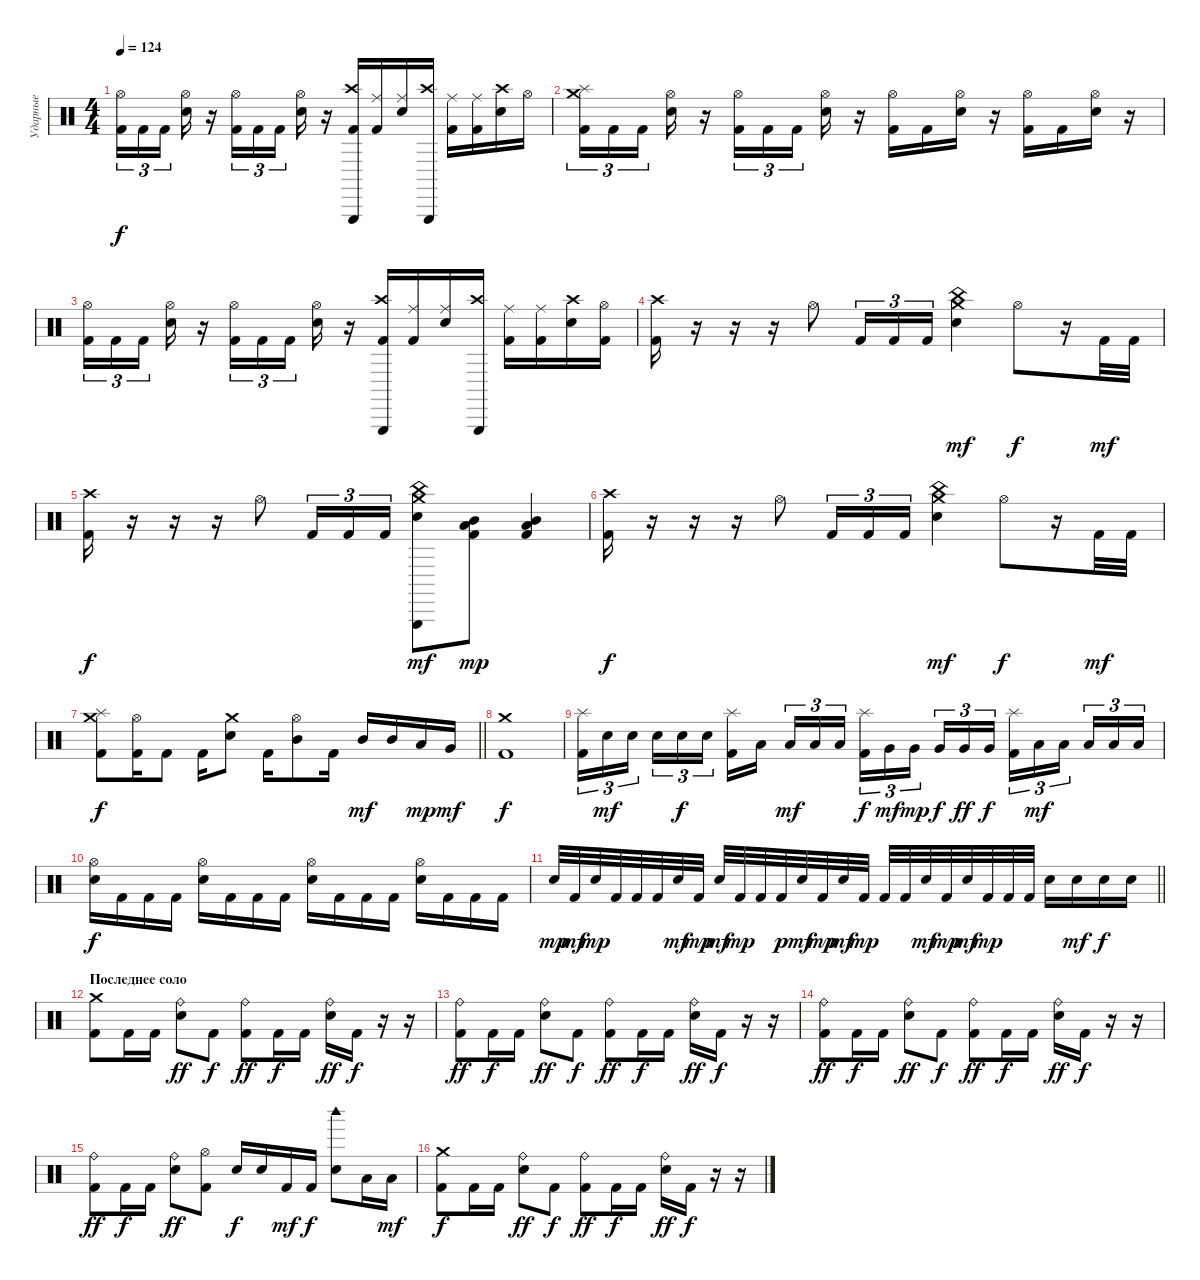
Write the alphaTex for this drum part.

\track ("Ударные" "Ударные") {instrument percussion bank 127}
\staff
\articulation defaults
\ts (4 4)
\tempo 124
\clef neutral
\ks c
("Hi-Hat (open)" "Kick (hit) 2").16{tu (3 2) dy f} "Kick (hit) 2".16{tu (3 2)} "Kick (hit) 2".16{tu (3 2) beam splitsecondary} ("Hi-Hat (open)" "Snare (hit) 2").16 r.16 ("Hi-Hat (open)" "Kick (hit) 2").16{tu (3 2)} "Kick (hit) 2".16{tu (3 2)} "Kick (hit) 2".16{tu (3 2) beam splitsecondary} ("Hi-Hat (open)" "Snare (hit) 2").16 r.16 ("Crash high (hit)" "Triangle (hit)" "Kick (hit) 2").16 ("Ride (middle)" "Kick (hit) 2").16 ("Ride (middle)" "Snare (hit) 2").16 ("Crash high (hit)" "Triangle (hit)").16 ("Ride (middle)" "Kick (hit) 2").16 ("Ride (middle)" "Kick (hit) 2").16 ("Crash high (hit)" "Snare (hit) 2").16 "Hi-Hat (open)".16 |
("Crash medium (hit)" "Splash (hit)" "Kick (hit) 2").16{tu (3 2)} "Kick (hit) 2".16{tu (3 2)} "Kick (hit) 2".16{tu (3 2) beam splitsecondary} ("Hi-Hat (open)" "Snare (hit) 2").16 r.16 ("Hi-Hat (open)" "Kick (hit) 2").16{tu (3 2)} "Kick (hit) 2".16{tu (3 2)} "Kick (hit) 2".16{tu (3 2) beam splitsecondary} ("Hi-Hat (open)" "Snare (hit) 2").16 r.16 ("Hi-Hat (open)" "Kick (hit) 2").16 "Kick (hit) 2".16 ("Hi-Hat (open)" "Snare (hit) 2").16 r.16 ("Hi-Hat (open)" "Kick (hit) 2").16 "Kick (hit) 2".16 ("Hi-Hat (open)" "Snare (hit) 2").16 r.16 |
("Hi-Hat (open)" "Kick (hit) 2").16{tu (3 2)} "Kick (hit) 2".16{tu (3 2)} "Kick (hit) 2".16{tu (3 2) beam splitsecondary} ("Hi-Hat (open)" "Snare (hit) 2").16 r.16 ("Hi-Hat (open)" "Kick (hit) 2").16{tu (3 2)} "Kick (hit) 2".16{tu (3 2)} "Kick (hit) 2".16{tu (3 2) beam splitsecondary} ("Hi-Hat (open)" "Snare (hit) 2").16 r.16 ("Crash high (hit)" "Triangle (hit)" "Kick (hit) 2").16 ("Ride (middle)" "Kick (hit) 2").16 ("Ride (middle)" "Snare (hit) 2").16 ("Crash high (hit)" "Triangle (hit)").16 ("Ride (middle)" "Kick (hit) 2").16 ("Ride (middle)" "Kick (hit) 2").16 ("Crash high (hit)" "Snare (hit) 2").16 ("Hi-Hat (open)" "Kick (hit) 2").16 |
("Crash high (hit)" "Kick (hit) 2").16 r.16 r.16 r.16 "Hi-Hat (open)".8 "Kick (hit) 2".16{tu (3 2)} "Kick (hit) 2".16{tu (3 2)} "Kick (hit) 2".16{tu (3 2)} ("China (hit)" "Snare (hit) 2" "Crash medium (hit)").4{dy mf} "Hi-Hat (open)".8{dy f} r.16 "Kick (hit) 2".32{dy mf} "Kick (hit) 2".32 |
("Crash high (hit)" "Kick (hit) 2").16{dy f} r.16 r.16 r.16 "Hi-Hat (open)".8 "Kick (hit) 2".16{tu (3 2)} "Kick (hit) 2".16{tu (3 2)} "Kick (hit) 2".16{tu (3 2)} ("China (hit)" "Snare (hit) 2" "Crash medium (hit)" "Triangle (hit)").8{dy mf} ("Kick (hit) 2" "Mid Tom (hit)" "Low Tom (hit)").8{dy mp} ("Kick (hit) 2" "Low Tom (hit)" "Mid Tom (hit)").4 |
("Crash high (hit)" "Kick (hit) 2").16{dy f} r.16 r.16 r.16 "Hi-Hat (open)".8 "Kick (hit) 2".16{tu (3 2)} "Kick (hit) 2".16{tu (3 2)} "Kick (hit) 2".16{tu (3 2)} ("China (hit)" "Snare (hit) 2" "Crash medium (hit)").4{dy mf} "Hi-Hat (open)".8{dy f} r.16 "Kick (hit) 2".32{dy mf} "Kick (hit) 2".32 |
\barLineRight lightlight
("Crash medium (hit)" "Splash (hit)" "Kick (hit) 2").8{dy f} ("Hi-Hat (open)" "Kick (hit) 2").16 "Kick (hit) 2".8 "Kick (hit) 2".16 ("Crash medium (hit)" "Snare (hit) 2").8 "Kick (hit) 2".16 ("Hi-Hat (open)" "Mid Tom (hit)").8 "Kick (hit) 2".16 "Mid Tom (hit)".16{dy mf} "Mid Tom (hit)".16 "Low Tom (hit)".16{dy mp} "Very Low Tom (hit)".16{dy mf} |
("Kick (hit) 2" "Crash medium (hit)").1{dy f} |
("Kick (hit) 2" "Splash (hit)").16{tu (3 2)} "Snare (hit) 2".16{tu (3 2) dy mf} "Snare (hit) 2".16{tu (3 2) beam splitsecondary} "Snare (hit) 2".16{tu (3 2)} "Snare (hit) 2".16{tu (3 2) dy f} "Snare (hit) 2".16{tu (3 2)} ("Kick (hit) 2" "Splash (hit)").16 "Low Tom (hit)".16{beam splitsecondary} "Low Tom (hit)".16{tu (3 2) dy mf} "Low Tom (hit)".16{tu (3 2)} "Low Tom (hit)".16{tu (3 2)} ("Splash (hit)" "Kick (hit) 2").16{tu (3 2) dy f} "Very Low Tom (hit)".16{tu (3 2) dy mf} "Very Low Tom (hit)".16{tu (3 2) dy mp beam splitsecondary} "Very Low Tom (hit)".16{tu (3 2) dy f} "Very Low Tom (hit)".16{tu (3 2) dy ff} "Very Low Tom (hit)".16{tu (3 2) dy f} ("Splash (hit)" "Kick (hit) 2").16{tu (3 2)} "Low Floor Tom (hit)".16{tu (3 2) dy mf} "Low Floor Tom (hit)".16{tu (3 2) beam splitsecondary} "Low Floor Tom (hit)".16{tu (3 2)} "Low Floor Tom (hit)".16{tu (3 2)} "Low Floor Tom (hit)".16{tu (3 2)} |
("Hi-Hat (open)" "Snare (hit) 2").16{dy f} "Kick (hit) 2".16 "Kick (hit) 2".16 "Kick (hit) 2".16 ("Hi-Hat (open)" "Snare (hit) 2").16 "Kick (hit) 2".16 "Kick (hit) 2".16 "Kick (hit) 2".16 ("Hi-Hat (open)" "Snare (hit) 2").16 "Kick (hit) 2".16 "Kick (hit) 2".16 "Kick (hit) 2".16 ("Hi-Hat (open)" "Snare (hit) 2").16 "Kick (hit) 2".16 "Kick (hit) 2".16 "Kick (hit) 2".16 |
\barLineRight lightlight "Snare (hit) 2".32{dy mp} "Kick (hit) 2".32{dy mf} "Snare (hit) 2".32{dy mp} "Kick (hit) 2".32 "Kick (hit) 2".32 "Kick (hit) 2".32 "Snare (hit) 2".32{dy mf} "Kick (hit) 2".32{dy mp} "Snare (hit) 2".32{dy mf} "Kick (hit) 2".32{dy mp} "Kick (hit) 2".32 "Kick (hit) 2".32{dy p} "Snare (hit) 2".32{dy mf} "Kick (hit) 2".32{dy mp} "Snare (hit) 2".32{dy mf} "Kick (hit) 2".32{dy mp} "Kick (hit) 2".32 "Kick (hit) 2".32 "Snare (hit) 2".32{dy mf} "Kick (hit) 2".32{dy mp} "Snare (hit) 2".32{dy mf} "Kick (hit) 2".32{dy mp} "Kick (hit) 2".32 "Kick (hit) 2".32 "Snare (hit) 2".16 "Snare (hit) 2".16{dy mf} "Snare (hit) 2".16{dy f} "Snare (hit) 2".16
|
\section ("" "Последнее соло")
("Crash medium (hit)" "Kick (hit) 2").8 "Kick (hit) 2".16 "Kick (hit) 2".16 ("Ride (bell)" "Snare (hit) 2").8{dy ff} "Kick (hit) 2".8{dy f} ("Ride (bell)" "Kick (hit) 2").8{dy ff} "Kick (hit) 2".16{dy f} "Kick (hit) 2".16 ("Ride (bell)" "Snare (hit) 2").16{dy ff} "Kick (hit) 2".16{dy f} r.16 r.16 |
("Ride (bell)" "Kick (hit) 2").8{dy ff} "Kick (hit) 2".16{dy f} "Kick (hit) 2".16 ("Ride (bell)" "Snare (hit) 2").8{dy ff} "Kick (hit) 2".8{dy f} ("Ride (bell)" "Kick (hit) 2").8{dy ff} "Kick (hit) 2".16{dy f} "Kick (hit) 2".16 ("Ride (bell)" "Snare (hit) 2").16{dy ff} "Kick (hit) 2".16{dy f} r.16 r.16 |
("Ride (bell)" "Kick (hit) 2").8{dy ff} "Kick (hit) 2".16{dy f} "Kick (hit) 2".16 ("Ride (bell)" "Snare (hit) 2").8{dy ff} "Kick (hit) 2".8{dy f} ("Ride (bell)" "Kick (hit) 2").8{dy ff} "Kick (hit) 2".16{dy f} "Kick (hit) 2".16 ("Ride (bell)" "Snare (hit) 2").16{dy ff} "Kick (hit) 2".16{dy f} r.16 r.16 |
("Ride (bell)" "Kick (hit) 2").8{dy ff} "Kick (hit) 2".16{dy f} "Kick (hit) 2".16 ("Ride (bell)" "Snare (hit) 2").8{dy ff} ("Hi-Hat (open)" "Kick (hit) 2").8 "Snare (hit) 2".16{dy f} "Snare (hit) 2".16 "Kick (hit) 2".16{dy mf} "Kick (hit) 2".16{dy f} ("Snare (hit) 2" "Woodblock high (hit)").8 "Low Tom (hit)".16 "Low Tom (hit)".16{dy mf} |
("Crash medium (hit)" "Kick (hit) 2").8{dy f} "Kick (hit) 2".16 "Kick (hit) 2".16 ("Ride (bell)" "Snare (hit) 2").8{dy ff} "Kick (hit) 2".8{dy f} ("Ride (bell)" "Kick (hit) 2").8{dy ff} "Kick (hit) 2".16{dy f} "Kick (hit) 2".16 ("Ride (bell)" "Snare (hit) 2").16{dy ff} "Kick (hit) 2".16{dy f} r.16 r.16
